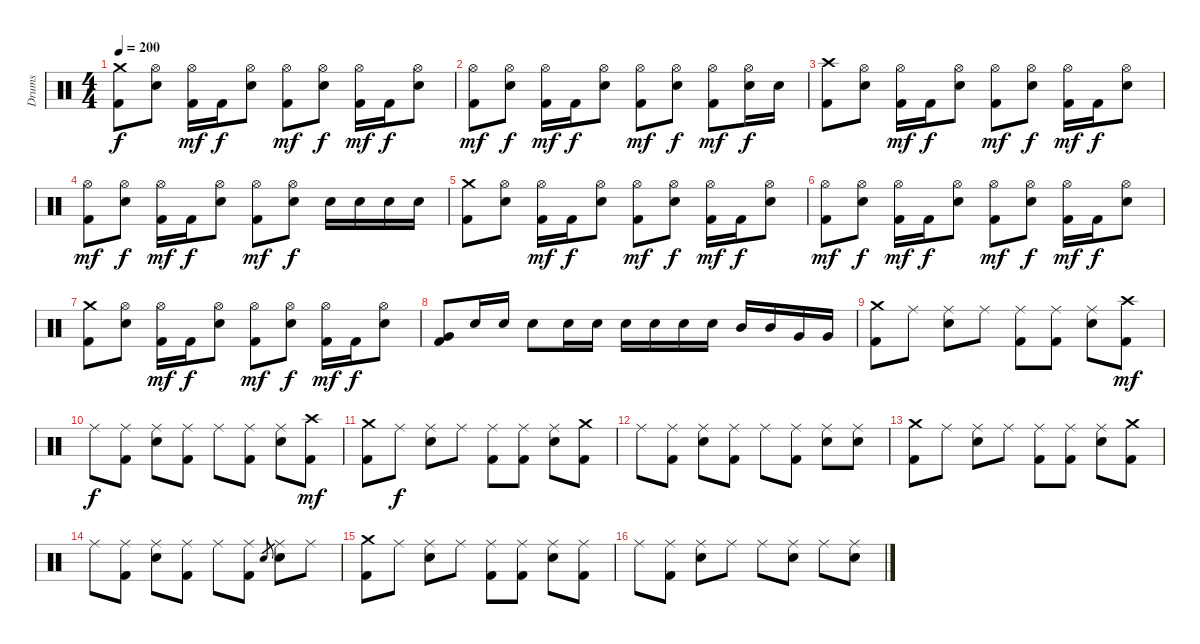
\track ("Drums" "Drums") {instrument percussion}
\staff {score}
\articulation defaults
\ts (4 4)
\tempo 200
\clef neutral
\ks c
("Crash medium (hit)" "Kick (hit) 2").8{dy f} ("Hi-Hat (open)" "Electric Snare (hit)").8 ("Hi-Hat (open)" "Kick (hit) 2").16{dy mf} "Kick (hit) 2".16{dy f} ("Hi-Hat (open)" "Electric Snare (hit)").8 ("Hi-Hat (open)" "Kick (hit) 2").8{dy mf} ("Hi-Hat (open)" "Electric Snare (hit)").8{dy f} ("Hi-Hat (open)" "Kick (hit) 2").16{dy mf} "Kick (hit) 2".16{dy f} ("Hi-Hat (open)" "Electric Snare (hit)").8 |
("Hi-Hat (open)" "Kick (hit) 2").8{dy mf} ("Hi-Hat (open)" "Electric Snare (hit)").8{dy f} ("Hi-Hat (open)" "Kick (hit) 2").16{dy mf} "Kick (hit) 2".16{dy f} ("Hi-Hat (open)" "Electric Snare (hit)").8 ("Hi-Hat (open)" "Kick (hit) 2").8{dy mf} ("Hi-Hat (open)" "Electric Snare (hit)").8{dy f} ("Hi-Hat (open)" "Kick (hit) 2").8{dy mf} ("Hi-Hat (open)" "Electric Snare (hit)").16{dy f} "Electric Snare (hit)".16 |
("Crash high (hit)" "Kick (hit) 2").8 ("Hi-Hat (open)" "Electric Snare (hit)").8 ("Hi-Hat (open)" "Kick (hit) 2").16{dy mf} "Kick (hit) 2".16{dy f} ("Hi-Hat (open)" "Electric Snare (hit)").8 ("Hi-Hat (open)" "Kick (hit) 2").8{dy mf} ("Hi-Hat (open)" "Electric Snare (hit)").8{dy f} ("Hi-Hat (open)" "Kick (hit) 2").16{dy mf} "Kick (hit) 2".16{dy f} ("Hi-Hat (open)" "Electric Snare (hit)").8 |
("Hi-Hat (open)" "Kick (hit) 2").8{dy mf} ("Hi-Hat (open)" "Electric Snare (hit)").8{dy f} ("Hi-Hat (open)" "Kick (hit) 2").16{dy mf} "Kick (hit) 2".16{dy f} ("Hi-Hat (open)" "Electric Snare (hit)").8 ("Hi-Hat (open)" "Kick (hit) 2").8{dy mf} ("Hi-Hat (open)" "Electric Snare (hit)").8{dy f} "Electric Snare (hit)".16 "Electric Snare (hit)".16 "Electric Snare (hit)".16 "Electric Snare (hit)".16 |
("Crash medium (hit)" "Kick (hit) 2").8 ("Hi-Hat (open)" "Electric Snare (hit)").8 ("Hi-Hat (open)" "Kick (hit) 2").16{dy mf} "Kick (hit) 2".16{dy f} ("Hi-Hat (open)" "Electric Snare (hit)").8 ("Hi-Hat (open)" "Kick (hit) 2").8{dy mf} ("Hi-Hat (open)" "Electric Snare (hit)").8{dy f} ("Hi-Hat (open)" "Kick (hit) 2").16{dy mf} "Kick (hit) 2".16{dy f} ("Hi-Hat (open)" "Electric Snare (hit)").8 |
("Hi-Hat (open)" "Kick (hit) 2").8{dy mf} ("Hi-Hat (open)" "Electric Snare (hit)").8{dy f} ("Hi-Hat (open)" "Kick (hit) 2").16{dy mf} "Kick (hit) 2".16{dy f} ("Hi-Hat (open)" "Electric Snare (hit)").8 ("Hi-Hat (open)" "Kick (hit) 2").8{dy mf} ("Hi-Hat (open)" "Electric Snare (hit)").8{dy f} ("Hi-Hat (open)" "Kick (hit) 2").16{dy mf} "Kick (hit) 2".16{dy f} ("Hi-Hat (open)" "Electric Snare (hit)").8 |
("Crash medium (hit)" "Kick (hit) 2").8 ("Hi-Hat (open)" "Electric Snare (hit)").8 ("Hi-Hat (open)" "Kick (hit) 2").16{dy mf} "Kick (hit) 2".16{dy f} ("Hi-Hat (open)" "Electric Snare (hit)").8 ("Hi-Hat (open)" "Kick (hit) 2").8{dy mf} ("Hi-Hat (open)" "Electric Snare (hit)").8{dy f} ("Hi-Hat (open)" "Kick (hit) 2").16{dy mf} "Kick (hit) 2".16{dy f} ("Hi-Hat (open)" "Electric Snare (hit)").8 |
("Very Low Tom (hit)" "Kick (hit) 2").8 "Electric Snare (hit)".16 "Electric Snare (hit)".16 "Electric Snare (hit)".8 "Electric Snare (hit)".16 "Electric Snare (hit)".16 "Electric Snare (hit)".16 "Electric Snare (hit)".16 "Electric Snare (hit)".16 "Electric Snare (hit)".16 "Mid Tom (hit)".16 "Mid Tom (hit)".16 "Very Low Tom (hit)".16 "Very Low Tom (hit)".16 |
("Crash medium (hit)" "Kick (hit) 2").8 "Ride (middle)".8 ("Ride (middle)" "Electric Snare (hit)").8 "Ride (middle)".8 ("Ride (middle)" "Kick (hit) 2").8 ("Ride (middle)" "Kick (hit) 2").8 ("Ride (middle)" "Electric Snare (hit)").8 ("Crash high (hit)" "Kick (hit) 2").8{dy mf} |
"Ride (middle)".8{dy f} ("Ride (middle)" "Kick (hit) 2").8 ("Ride (middle)" "Electric Snare (hit)").8 ("Ride (middle)" "Kick (hit) 2").8 "Ride (middle)".8 ("Ride (middle)" "Kick (hit) 2").8 ("Ride (middle)" "Electric Snare (hit)").8 ("Crash high (hit)" "Kick (hit) 2").8{dy mf} |
("Crash medium (hit)" "Kick (hit) 2").8 "Ride (middle)".8{dy f} ("Ride (middle)" "Electric Snare (hit)").8 "Ride (middle)".8 ("Ride (middle)" "Kick (hit) 2").8 ("Ride (middle)" "Kick (hit) 2").8 ("Ride (middle)" "Electric Snare (hit)").8 ("Crash medium (hit)" "Kick (hit) 2").8 |
"Ride (middle)".8 ("Ride (middle)" "Kick (hit) 2").8 ("Ride (middle)" "Electric Snare (hit)").8 ("Ride (middle)" "Kick (hit) 2").8 "Ride (middle)".8 ("Ride (middle)" "Kick (hit) 2").8 ("Ride (middle)" "Electric Snare (hit)").8 ("Ride (middle)" "Electric Snare (hit)").8 |
("Crash medium (hit)" "Kick (hit) 2").8 "Ride (middle)".8 ("Ride (middle)" "Electric Snare (hit)").8 "Ride (middle)".8 ("Ride (middle)" "Kick (hit) 2").8 ("Ride (middle)" "Kick (hit) 2").8 ("Ride (middle)" "Electric Snare (hit)").8 ("Crash medium (hit)" "Kick (hit) 2").8 |
"Ride (middle)".8 ("Ride (middle)" "Kick (hit) 2").8 ("Ride (middle)" "Electric Snare (hit)").8 ("Ride (middle)" "Kick (hit) 2").8 "Ride (middle)".8 ("Ride (middle)" "Kick (hit) 2").8 "Electric Snare (hit)".8{gr} ("Ride (middle)" "Electric Snare (hit)").8 "Ride (middle)".8 |
("Crash medium (hit)" "Kick (hit) 2").8 "Ride (middle)".8 ("Ride (middle)" "Electric Snare (hit)").8 "Ride (middle)".8 ("Ride (middle)" "Kick (hit) 2").8 ("Ride (middle)" "Kick (hit) 2").8 ("Ride (middle)" "Electric Snare (hit)").8 ("Ride (middle)" "Kick (hit) 2").8 |
"Ride (middle)".8 ("Ride (middle)" "Kick (hit) 2").8 ("Ride (middle)" "Electric Snare (hit)").8 "Ride (middle)".8 "Ride (middle)".8 ("Ride (middle)" "Electric Snare (hit)").8 "Ride (middle)".8 ("Ride (middle)" "Electric Snare (hit)").8
